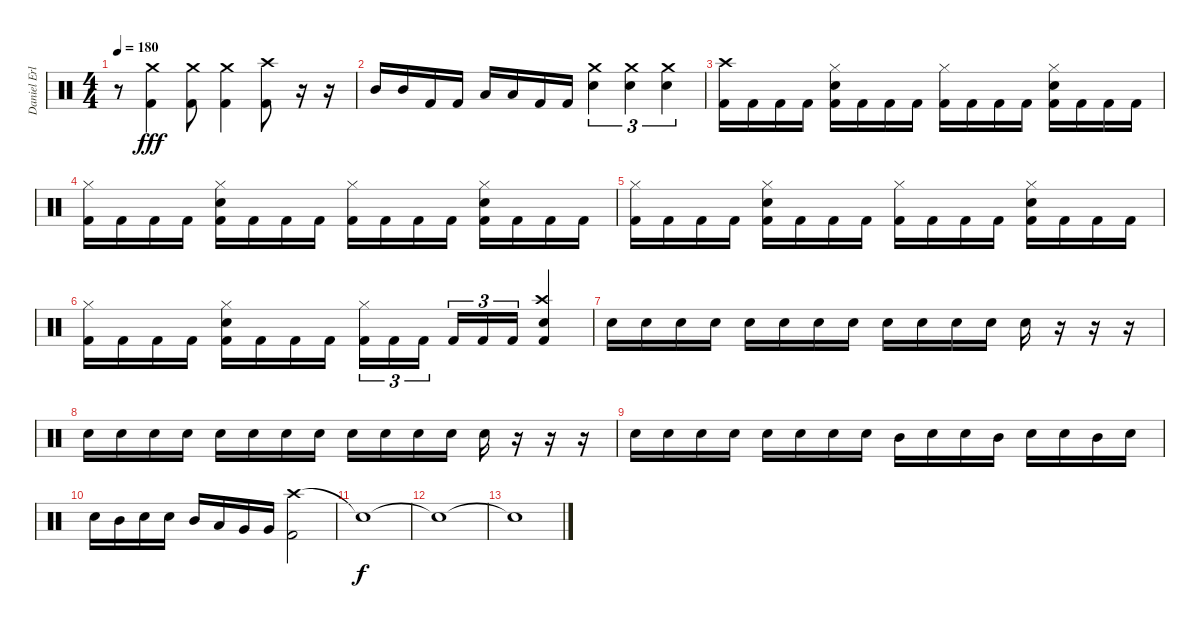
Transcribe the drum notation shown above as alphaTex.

\track ("Daniel Erlandsson" "Daniel Erl") {instrument percussion}
\staff {score}
\articulation defaults
\ts (4 4)
\tempo 180
\clef neutral
\ks c
r.8{dy fff} ("Crash medium (hit)" "Kick (hit) 2").4{volume 16} ("Crash medium (hit)" "Kick (hit) 2").8 ("Crash medium (hit)" "Kick (hit) 2").4 ("Crash high (hit)" "Kick (hit) 2").8 r.16 r.16 |
"Mid Tom (hit)".16 "Mid Tom (hit)".16 "Kick (hit) 2".16 "Kick (hit) 2".16 "Low Tom (hit)".16 "Low Tom (hit)".16 "Kick (hit) 2".16 "Kick (hit) 2".16 ("Crash medium (hit)" "Electric Snare (hit)").4{tu (3 2)} ("Crash medium (hit)" "Electric Snare (hit)").4{tu (3 2)} ("Crash medium (hit)" "Electric Snare (hit)").4{tu (3 2)} |
("Crash high (hit)" "Kick (hit) 2").16 "Kick (hit) 2".16 "Kick (hit) 2".16 "Kick (hit) 2".16 ("Hi-Hat (closed)" "Electric Snare (hit)" "Kick (hit) 2").16 "Kick (hit) 2".16 "Kick (hit) 2".16 "Kick (hit) 2".16 ("Hi-Hat (closed)" "Kick (hit) 2").16 "Kick (hit) 2".16 "Kick (hit) 2".16 "Kick (hit) 2".16 ("Hi-Hat (closed)" "Electric Snare (hit)" "Kick (hit) 2").16 "Kick (hit) 2".16 "Kick (hit) 2".16 "Kick (hit) 2".16 |
("Hi-Hat (closed)" "Kick (hit) 2").16 "Kick (hit) 2".16 "Kick (hit) 2".16 "Kick (hit) 2".16 ("Hi-Hat (closed)" "Electric Snare (hit)" "Kick (hit) 2").16 "Kick (hit) 2".16 "Kick (hit) 2".16 "Kick (hit) 2".16 ("Hi-Hat (closed)" "Kick (hit) 2").16 "Kick (hit) 2".16 "Kick (hit) 2".16 "Kick (hit) 2".16 ("Hi-Hat (closed)" "Electric Snare (hit)" "Kick (hit) 2").16 "Kick (hit) 2".16 "Kick (hit) 2".16 "Kick (hit) 2".16 |
("Hi-Hat (closed)" "Kick (hit) 2").16 "Kick (hit) 2".16 "Kick (hit) 2".16 "Kick (hit) 2".16 ("Hi-Hat (closed)" "Electric Snare (hit)" "Kick (hit) 2").16 "Kick (hit) 2".16 "Kick (hit) 2".16 "Kick (hit) 2".16 ("Hi-Hat (closed)" "Kick (hit) 2").16 "Kick (hit) 2".16 "Kick (hit) 2".16 "Kick (hit) 2".16 ("Hi-Hat (closed)" "Electric Snare (hit)" "Kick (hit) 2").16 "Kick (hit) 2".16 "Kick (hit) 2".16 "Kick (hit) 2".16 |
("Hi-Hat (closed)" "Kick (hit) 2").16 "Kick (hit) 2".16 "Kick (hit) 2".16 "Kick (hit) 2".16 ("Hi-Hat (closed)" "Electric Snare (hit)" "Kick (hit) 2").16 "Kick (hit) 2".16 "Kick (hit) 2".16 "Kick (hit) 2".16 ("Hi-Hat (closed)" "Kick (hit) 2").16{tu (3 2)} "Kick (hit) 2".16{tu (3 2)} "Kick (hit) 2".16{tu (3 2) beam splitsecondary} "Kick (hit) 2".16{tu (3 2)} "Kick (hit) 2".16{tu (3 2)} "Kick (hit) 2".16{tu (3 2)} ("Crash high (hit)" "Electric Snare (hit)" "Kick (hit) 2").4 |
"Electric Snare (hit)".16 "Electric Snare (hit)".16 "Electric Snare (hit)".16 "Electric Snare (hit)".16 "Electric Snare (hit)".16 "Electric Snare (hit)".16 "Electric Snare (hit)".16 "Electric Snare (hit)".16 "Electric Snare (hit)".16 "Electric Snare (hit)".16 "Electric Snare (hit)".16 "Electric Snare (hit)".16 "Electric Snare (hit)".16 r.16 r.16 r.16 |
"Electric Snare (hit)".16 "Electric Snare (hit)".16 "Electric Snare (hit)".16 "Electric Snare (hit)".16 "Electric Snare (hit)".16 "Electric Snare (hit)".16 "Electric Snare (hit)".16 "Electric Snare (hit)".16 "Electric Snare (hit)".16 "Electric Snare (hit)".16 "Electric Snare (hit)".16 "Electric Snare (hit)".16 "Electric Snare (hit)".16 r.16 r.16 r.16 |
"Electric Snare (hit)".16 "Electric Snare (hit)".16 "Electric Snare (hit)".16 "Electric Snare (hit)".16 "Electric Snare (hit)".16 "Electric Snare (hit)".16 "Electric Snare (hit)".16 "Electric Snare (hit)".16 "Mid Tom (hit)".16 "Electric Snare (hit)".16 "Electric Snare (hit)".16 "Mid Tom (hit)".16 "Electric Snare (hit)".16 "Electric Snare (hit)".16 "Mid Tom (hit)".16 "Electric Snare (hit)".16 |
"Electric Snare (hit)".16 "Mid Tom (hit)".16 "Electric Snare (hit)".16 "Electric Snare (hit)".16 "Mid Tom (hit)".16 "Low Tom (hit)".16 "Very Low Tom (hit)".16 "Very Low Tom (hit)".16 ("Crash high (hit)" "Kick (hit) 2").2 |
"Snare (hit)"{t}.1{dy f} |
"Snare (hit)"{t}.1 |
"Snare (hit)"{t}.1
